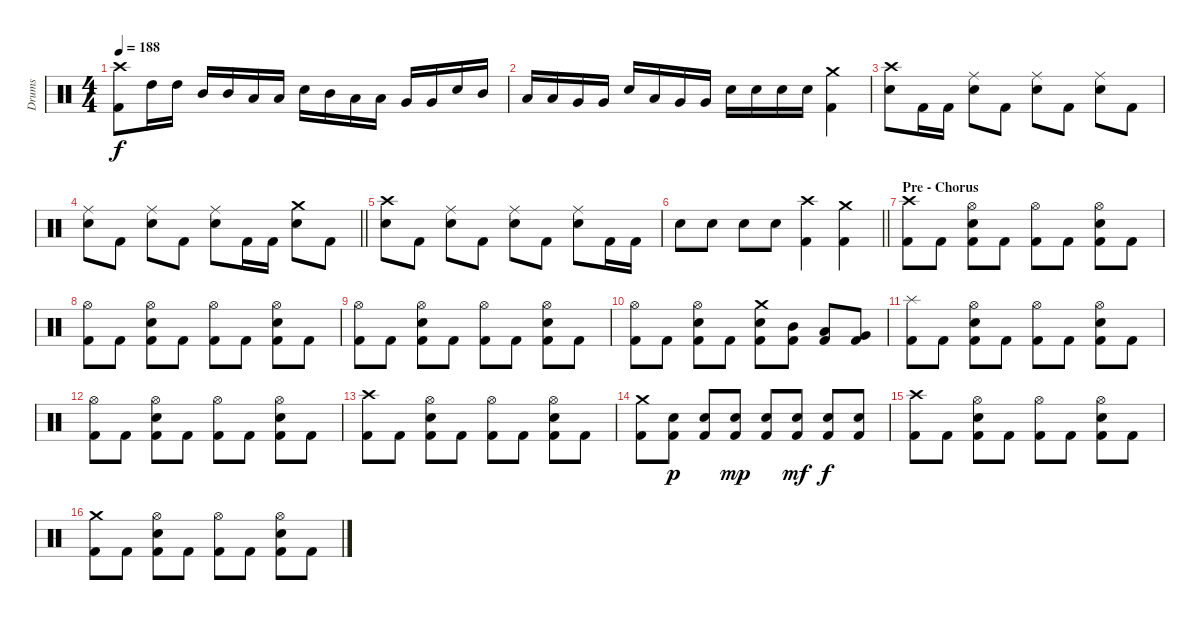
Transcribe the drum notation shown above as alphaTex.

\track ("Drums" "Drums") {instrument percussion}
\staff {score}
\articulation defaults
\ts (4 4)
\tempo 188
\clef neutral
\ks c
("Crash high (hit)" "Kick (hit) 2").8{dy f} "High Tom (hit)".16 "High Tom (hit)".16 "Mid Tom (hit)".16 "Mid Tom (hit)".16 "Low Tom (hit)".16 "Low Tom (hit)".16 "Electric Snare (hit)".16 "Mid Tom (hit)".16 "Low Tom (hit)".16 "Low Tom (hit)".16 "Very Low Tom (hit)".16 "Very Low Tom (hit)".16 "Electric Snare (hit)".16 "Mid Tom (hit)".16 |
"Low Tom (hit)".16 "Low Tom (hit)".16 "Very Low Tom (hit)".16 "Very Low Tom (hit)".16 "Electric Snare (hit)".16 "Low Tom (hit)".16 "Very Low Tom (hit)".16 "Very Low Tom (hit)".16 "Electric Snare (hit)".16 "Electric Snare (hit)".16 "Electric Snare (hit)".16 "Electric Snare (hit)".16 ("Crash medium (hit)" "Kick (hit) 2").4 |
("Crash high (hit)" "Electric Snare (hit)").8 "Kick (hit) 2".16 "Kick (hit) 2".16 ("Ride (middle)" "Electric Snare (hit)").8 "Kick (hit) 2".8 ("Ride (middle)" "Electric Snare (hit)").8 "Kick (hit) 2".8 ("Ride (middle)" "Electric Snare (hit)").8 "Kick (hit) 2".8 |
\barLineRight lightlight
("Ride (middle)" "Electric Snare (hit)").8 "Kick (hit) 2".8 ("Ride (middle)" "Electric Snare (hit)").8 "Kick (hit) 2".8 ("Ride (middle)" "Electric Snare (hit)").8 "Kick (hit) 2".16 "Kick (hit) 2".16 ("Crash medium (hit)" "Electric Snare (hit)").8 "Kick (hit) 2".8 |
("Crash high (hit)" "Electric Snare (hit)").8 "Kick (hit) 2".8 ("Ride (middle)" "Electric Snare (hit)").8 "Kick (hit) 2".8 ("Ride (middle)" "Electric Snare (hit)").8 "Kick (hit) 2".8 ("Ride (middle)" "Electric Snare (hit)").8 "Kick (hit) 2".16 "Kick (hit) 2".16 |
\barLineRight lightlight "Electric Snare (hit)".8 "Electric Snare (hit)".8 "Electric Snare (hit)".8 "Electric Snare (hit)".8
("Crash high (hit)" "Kick (hit) 2").4 ("Crash medium (hit)" "Kick (hit) 2").4 |
\section ("" "Pre - Chorus")
("Crash high (hit)" "Kick (hit) 2").8 "Kick (hit) 2".8 ("Hi-Hat (open)" "Electric Snare (hit)" "Kick (hit) 2").8 "Kick (hit) 2".8 ("Hi-Hat (open)" "Kick (hit) 2").8 "Kick (hit) 2".8 ("Hi-Hat (open)" "Electric Snare (hit)" "Kick (hit) 2").8 "Kick (hit) 2".8 |
("Hi-Hat (open)" "Kick (hit) 2").8 "Kick (hit) 2".8 ("Hi-Hat (open)" "Electric Snare (hit)" "Kick (hit) 2").8 "Kick (hit) 2".8 ("Hi-Hat (open)" "Kick (hit) 2").8 "Kick (hit) 2".8 ("Hi-Hat (open)" "Electric Snare (hit)" "Kick (hit) 2").8 "Kick (hit) 2".8 |
("Hi-Hat (open)" "Kick (hit) 2").8 "Kick (hit) 2".8 ("Hi-Hat (open)" "Electric Snare (hit)" "Kick (hit) 2").8 "Kick (hit) 2".8 ("Hi-Hat (open)" "Kick (hit) 2").8 "Kick (hit) 2".8 ("Hi-Hat (open)" "Electric Snare (hit)" "Kick (hit) 2").8 "Kick (hit) 2".8 |
("Hi-Hat (open)" "Kick (hit) 2").8 "Kick (hit) 2".8 ("Hi-Hat (open)" "Electric Snare (hit)" "Kick (hit) 2").8 "Kick (hit) 2".8 ("Crash medium (hit)" "Electric Snare (hit)" "Kick (hit) 2").8 ("Mid Tom (hit)" "Kick (hit) 2").8 ("Low Tom (hit)" "Kick (hit) 2").8 ("Very Low Tom (hit)" "Kick (hit) 2").8 |
("Splash (hit)" "Kick (hit) 2").8 "Kick (hit) 2".8 ("Hi-Hat (open)" "Electric Snare (hit)" "Kick (hit) 2").8 "Kick (hit) 2".8 ("Hi-Hat (open)" "Kick (hit) 2").8 "Kick (hit) 2".8 ("Hi-Hat (open)" "Electric Snare (hit)" "Kick (hit) 2").8 "Kick (hit) 2".8 |
("Hi-Hat (open)" "Kick (hit) 2").8 "Kick (hit) 2".8 ("Hi-Hat (open)" "Electric Snare (hit)" "Kick (hit) 2").8 "Kick (hit) 2".8 ("Hi-Hat (open)" "Kick (hit) 2").8 "Kick (hit) 2".8 ("Hi-Hat (open)" "Electric Snare (hit)" "Kick (hit) 2").8 "Kick (hit) 2".8 |
("Crash high (hit)" "Kick (hit) 2").8 "Kick (hit) 2".8 ("Hi-Hat (open)" "Electric Snare (hit)" "Kick (hit) 2").8 "Kick (hit) 2".8 ("Hi-Hat (open)" "Kick (hit) 2").8 "Kick (hit) 2".8 ("Hi-Hat (open)" "Electric Snare (hit)" "Kick (hit) 2").8 "Kick (hit) 2".8 |
("Crash medium (hit)" "Kick (hit) 2").8 ("Electric Snare (hit)" "Kick (hit) 2").8{dy p} ("Electric Snare (hit)" "Kick (hit) 2").8 ("Electric Snare (hit)" "Kick (hit) 2").8{dy mp} ("Electric Snare (hit)" "Kick (hit) 2").8 ("Electric Snare (hit)" "Kick (hit) 2").8{dy mf} ("Electric Snare (hit)" "Kick (hit) 2").8{dy f} ("Electric Snare (hit)" "Kick (hit) 2").8 |
("Crash high (hit)" "Kick (hit) 2").8 "Kick (hit) 2".8 ("Hi-Hat (open)" "Electric Snare (hit)" "Kick (hit) 2").8 "Kick (hit) 2".8 ("Hi-Hat (open)" "Kick (hit) 2").8 "Kick (hit) 2".8 ("Hi-Hat (open)" "Electric Snare (hit)" "Kick (hit) 2").8 "Kick (hit) 2".8 |
("Crash medium (hit)" "Kick (hit) 2").8 "Kick (hit) 2".8 ("Hi-Hat (open)" "Electric Snare (hit)" "Kick (hit) 2").8 "Kick (hit) 2".8 ("Hi-Hat (open)" "Kick (hit) 2").8 "Kick (hit) 2".8 ("Hi-Hat (open)" "Electric Snare (hit)" "Kick (hit) 2").8 "Kick (hit) 2".8
